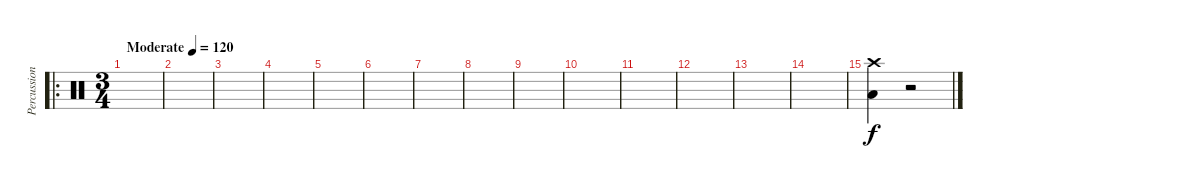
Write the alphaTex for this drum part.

\track ("Percussion" "Percussion") {instrument percussion}
\staff {score}
\articulation defaults
\ro
\ts (3 4)
\tempo (120 "Moderate")
\clef neutral
\ks c
|
|
|
|
|
|
|
|
|
|
|
|
|
|
("Low Floor Tom (hit)" "Crash high (hit)").4 r.2
